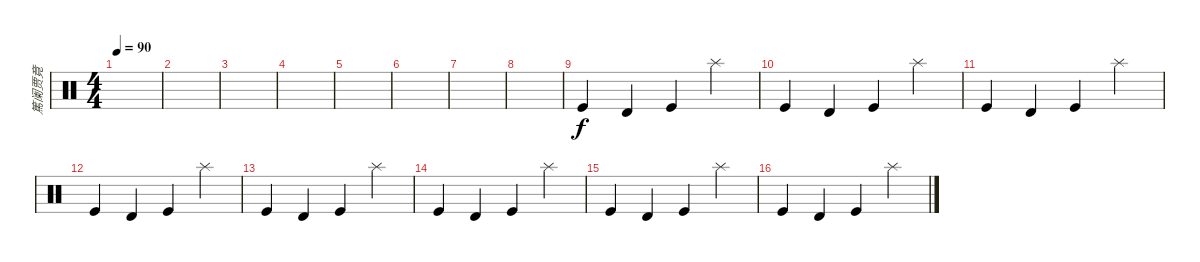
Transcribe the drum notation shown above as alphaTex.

\track ("篤阑贾竟" "篤阑贾竟") {instrument percussion}
\staff {score}
\articulation defaults
\ts (4 4)
\tempo 90
\clef neutral
\ks c
|
|
|
|
|
|
|
|
"Kick (hit)".4 "Timbale high (hit)".4 "Kick (hit)".4 "Splash (hit)".4 |
"Kick (hit)".4 "Timbale high (hit)".4 "Kick (hit)".4 "Splash (hit)".4 |
"Kick (hit)".4 "Timbale high (hit)".4 "Kick (hit)".4 "Splash (hit)".4 |
"Kick (hit)".4 "Timbale high (hit)".4 "Kick (hit)".4 "Splash (hit)".4 |
"Kick (hit)".4 "Timbale high (hit)".4 "Kick (hit)".4 "Splash (hit)".4 |
"Kick (hit)".4 "Timbale high (hit)".4 "Kick (hit)".4 "Splash (hit)".4 |
"Kick (hit)".4 "Timbale high (hit)".4 "Kick (hit)".4 "Splash (hit)".4 |
"Kick (hit)".4 "Timbale high (hit)".4 "Kick (hit)".4 "Splash (hit)".4
